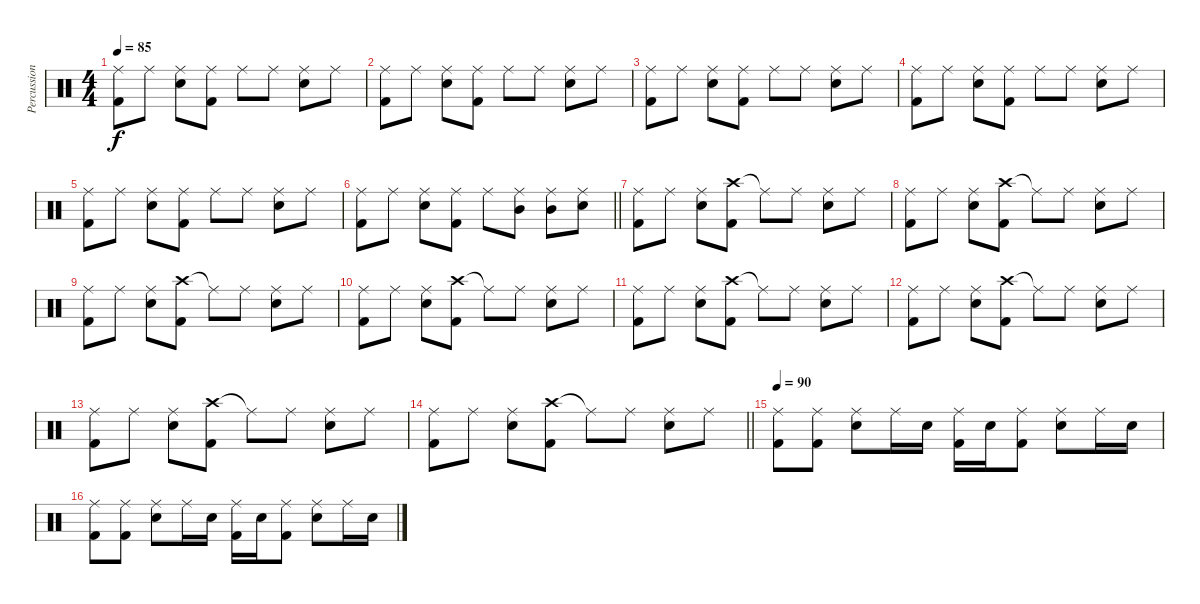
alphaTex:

\track ("Percussion" "Percussion") {instrument percussion}
\staff {score}
\articulation defaults
\ts (4 4)
\tempo 85
\clef neutral
\ks c
("Ride (middle)" "Kick (hit) 2").8{dy f} "Ride (middle)".8 ("Ride (middle)" "Snare (hit) 2").8 ("Ride (middle)" "Kick (hit) 2").8 "Ride (middle)".8 "Ride (middle)".8 ("Ride (middle)" "Snare (hit) 2").8 "Ride (middle)".8 |
("Ride (middle)" "Kick (hit) 2").8 "Ride (middle)".8 ("Ride (middle)" "Snare (hit) 2").8 ("Ride (middle)" "Kick (hit) 2").8 "Ride (middle)".8 "Ride (middle)".8 ("Ride (middle)" "Snare (hit) 2").8 "Ride (middle)".8 |
("Ride (middle)" "Kick (hit) 2").8 "Ride (middle)".8 ("Ride (middle)" "Snare (hit) 2").8 ("Ride (middle)" "Kick (hit) 2").8 "Ride (middle)".8 "Ride (middle)".8 ("Ride (middle)" "Snare (hit) 2").8 "Ride (middle)".8 |
("Ride (middle)" "Kick (hit) 2").8 "Ride (middle)".8 ("Ride (middle)" "Snare (hit) 2").8 ("Ride (middle)" "Kick (hit) 2").8 "Ride (middle)".8 "Ride (middle)".8 ("Ride (middle)" "Snare (hit) 2").8 "Ride (middle)".8 |
("Ride (middle)" "Kick (hit) 2").8 "Ride (middle)".8 ("Ride (middle)" "Snare (hit) 2").8 ("Ride (middle)" "Kick (hit) 2").8 "Ride (middle)".8 "Ride (middle)".8 ("Ride (middle)" "Snare (hit) 2").8 "Ride (middle)".8 |
\barLineRight lightlight
("Ride (middle)" "Kick (hit) 2").8 "Ride (middle)".8 ("Ride (middle)" "Snare (hit) 2").8 ("Ride (middle)" "Kick (hit) 2").8 "Ride (middle)".8 ("Ride (middle)" "Mid Tom (hit)").8 ("Ride (middle)" "Mid Tom (hit)").8 ("Ride (middle)" "Snare (hit) 2").8 |
("Ride (middle)" "Kick (hit) 2").8 "Ride (middle)".8 ("Ride (middle)" "Snare (hit) 2").8 ("Crash high (hit)" "Kick (hit) 2").8 "Ride (middle)"{t}.8 "Ride (middle)".8 ("Ride (middle)" "Snare (hit) 2").8 "Ride (middle)".8 |
("Ride (middle)" "Kick (hit) 2").8 "Ride (middle)".8 ("Ride (middle)" "Snare (hit) 2").8 ("Crash high (hit)" "Kick (hit) 2").8 "Ride (middle)"{t}.8 "Ride (middle)".8 ("Ride (middle)" "Snare (hit) 2").8 "Ride (middle)".8 |
("Ride (middle)" "Kick (hit) 2").8 "Ride (middle)".8 ("Ride (middle)" "Snare (hit) 2").8 ("Crash high (hit)" "Kick (hit) 2").8 "Ride (middle)"{t}.8 "Ride (middle)".8 ("Ride (middle)" "Snare (hit) 2").8 "Ride (middle)".8 |
("Ride (middle)" "Kick (hit) 2").8 "Ride (middle)".8 ("Ride (middle)" "Snare (hit) 2").8 ("Crash high (hit)" "Kick (hit) 2").8 "Ride (middle)"{t}.8 "Ride (middle)".8 ("Ride (middle)" "Snare (hit) 2").8 "Ride (middle)".8 |
("Ride (middle)" "Kick (hit) 2").8 "Ride (middle)".8 ("Ride (middle)" "Snare (hit) 2").8 ("Crash high (hit)" "Kick (hit) 2").8 "Ride (middle)"{t}.8 "Ride (middle)".8 ("Ride (middle)" "Snare (hit) 2").8 "Ride (middle)".8 |
("Ride (middle)" "Kick (hit) 2").8 "Ride (middle)".8 ("Ride (middle)" "Snare (hit) 2").8 ("Crash high (hit)" "Kick (hit) 2").8 "Ride (middle)"{t}.8 "Ride (middle)".8 ("Ride (middle)" "Snare (hit) 2").8 "Ride (middle)".8 |
("Ride (middle)" "Kick (hit) 2").8 "Ride (middle)".8 ("Ride (middle)" "Snare (hit) 2").8 ("Crash high (hit)" "Kick (hit) 2").8 "Ride (middle)"{t}.8 "Ride (middle)".8 ("Ride (middle)" "Snare (hit) 2").8 "Ride (middle)".8 |
\barLineRight lightlight
("Ride (middle)" "Kick (hit) 2").8 "Ride (middle)".8 ("Ride (middle)" "Snare (hit) 2").8 ("Crash high (hit)" "Kick (hit) 2").8 "Ride (middle)"{t}.8 "Ride (middle)".8 ("Ride (middle)" "Snare (hit) 2").8 "Ride (middle)".8 |
\tempo 90
("Ride (middle)" "Kick (hit) 2").8 ("Ride (middle)" "Kick (hit) 2").8 ("Ride (middle)" "Snare (hit) 2").8 "Ride (middle)".16 "Snare (hit) 2".16 ("Ride (middle)" "Kick (hit) 2").16 "Snare (hit) 2".16 ("Ride (middle)" "Kick (hit) 2").8 ("Ride (middle)" "Snare (hit) 2").8 "Ride (middle)".16 "Snare (hit) 2".16 |
("Ride (middle)" "Kick (hit) 2").8 ("Ride (middle)" "Kick (hit) 2").8 ("Ride (middle)" "Snare (hit) 2").8 "Ride (middle)".16 "Snare (hit) 2".16 ("Ride (middle)" "Kick (hit) 2").16 "Snare (hit) 2".16 ("Ride (middle)" "Kick (hit) 2").8 ("Ride (middle)" "Snare (hit) 2").8 "Ride (middle)".16 "Snare (hit) 2".16
